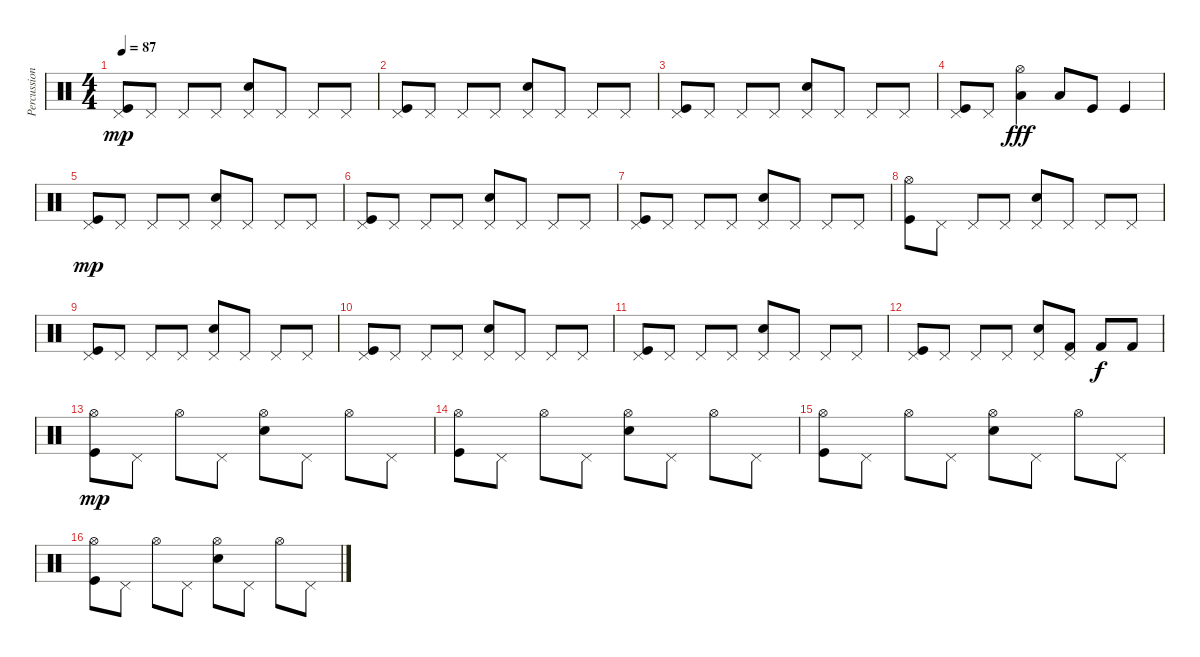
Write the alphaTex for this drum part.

\track ("Percussion" "Percussion") {instrument percussion}
\staff {score}
\articulation defaults
\ts (4 4)
\tempo 87
\clef neutral
\ks c
("Kick (hit)" "Pedal Hi-Hat (hit)").8{dy mp} "Pedal Hi-Hat (hit)".8 "Pedal Hi-Hat (hit)".8 "Pedal Hi-Hat (hit)".8 ("Snare (hit) 2" "Pedal Hi-Hat (hit)").8 "Pedal Hi-Hat (hit)".8 "Pedal Hi-Hat (hit)".8 "Pedal Hi-Hat (hit)".8 |
("Kick (hit)" "Pedal Hi-Hat (hit)").8 "Pedal Hi-Hat (hit)".8 "Pedal Hi-Hat (hit)".8 "Pedal Hi-Hat (hit)".8 ("Snare (hit) 2" "Pedal Hi-Hat (hit)").8 "Pedal Hi-Hat (hit)".8 "Pedal Hi-Hat (hit)".8 "Pedal Hi-Hat (hit)".8 |
("Kick (hit)" "Pedal Hi-Hat (hit)").8 "Pedal Hi-Hat (hit)".8 "Pedal Hi-Hat (hit)".8 "Pedal Hi-Hat (hit)".8 ("Snare (hit) 2" "Pedal Hi-Hat (hit)").8 "Pedal Hi-Hat (hit)".8 "Pedal Hi-Hat (hit)".8 "Pedal Hi-Hat (hit)".8 |
("Kick (hit)" "Pedal Hi-Hat (hit)").8 "Pedal Hi-Hat (hit)".8 ("Low Floor Tom (hit)" "Hi-Hat (open)").4{dy fff} "Low Tom (hit)".8 "Kick (hit)".8 "Kick (hit)".4 |
("Kick (hit)" "Pedal Hi-Hat (hit)").8{dy mp} "Pedal Hi-Hat (hit)".8 "Pedal Hi-Hat (hit)".8 "Pedal Hi-Hat (hit)".8 ("Snare (hit) 2" "Pedal Hi-Hat (hit)").8 "Pedal Hi-Hat (hit)".8 "Pedal Hi-Hat (hit)".8 "Pedal Hi-Hat (hit)".8 |
("Kick (hit)" "Pedal Hi-Hat (hit)").8 "Pedal Hi-Hat (hit)".8 "Pedal Hi-Hat (hit)".8 "Pedal Hi-Hat (hit)".8 ("Snare (hit) 2" "Pedal Hi-Hat (hit)").8 "Pedal Hi-Hat (hit)".8 "Pedal Hi-Hat (hit)".8 "Pedal Hi-Hat (hit)".8 |
("Kick (hit)" "Pedal Hi-Hat (hit)").8 "Pedal Hi-Hat (hit)".8 "Pedal Hi-Hat (hit)".8 "Pedal Hi-Hat (hit)".8 ("Snare (hit) 2" "Pedal Hi-Hat (hit)").8 "Pedal Hi-Hat (hit)".8 "Pedal Hi-Hat (hit)".8 "Pedal Hi-Hat (hit)".8 |
("Kick (hit)" "Hi-Hat (open)").8 "Pedal Hi-Hat (hit)".8 "Pedal Hi-Hat (hit)".8 "Pedal Hi-Hat (hit)".8 ("Snare (hit) 2" "Pedal Hi-Hat (hit)").8 "Pedal Hi-Hat (hit)".8 "Pedal Hi-Hat (hit)".8 "Pedal Hi-Hat (hit)".8 |
("Kick (hit)" "Pedal Hi-Hat (hit)").8 "Pedal Hi-Hat (hit)".8 "Pedal Hi-Hat (hit)".8 "Pedal Hi-Hat (hit)".8 ("Snare (hit) 2" "Pedal Hi-Hat (hit)").8 "Pedal Hi-Hat (hit)".8 "Pedal Hi-Hat (hit)".8 "Pedal Hi-Hat (hit)".8 |
("Kick (hit)" "Pedal Hi-Hat (hit)").8 "Pedal Hi-Hat (hit)".8 "Pedal Hi-Hat (hit)".8 "Pedal Hi-Hat (hit)".8 ("Snare (hit) 2" "Pedal Hi-Hat (hit)").8 "Pedal Hi-Hat (hit)".8 "Pedal Hi-Hat (hit)".8 "Pedal Hi-Hat (hit)".8 |
("Kick (hit)" "Pedal Hi-Hat (hit)").8 "Pedal Hi-Hat (hit)".8 "Pedal Hi-Hat (hit)".8 "Pedal Hi-Hat (hit)".8 ("Snare (hit) 2" "Pedal Hi-Hat (hit)").8 "Pedal Hi-Hat (hit)".8 "Pedal Hi-Hat (hit)".8 "Pedal Hi-Hat (hit)".8 |
("Kick (hit)" "Pedal Hi-Hat (hit)").8 "Pedal Hi-Hat (hit)".8 "Pedal Hi-Hat (hit)".8 "Pedal Hi-Hat (hit)".8 ("Electric Snare (hit)" "Pedal Hi-Hat (hit)").8 ("Kick (hit) 2" "Pedal Hi-Hat (hit)").8 "Kick (hit) 2".8{dy f} "Kick (hit) 2".8 |
("Kick (hit)" "Hi-Hat (open)").8{dy mp} "Pedal Hi-Hat (hit)".8 "Hi-Hat (open)".8 "Pedal Hi-Hat (hit)".8 ("Snare (hit) 2" "Hi-Hat (open)").8 "Pedal Hi-Hat (hit)".8 "Hi-Hat (open)".8 "Pedal Hi-Hat (hit)".8 |
("Kick (hit)" "Hi-Hat (open)").8 "Pedal Hi-Hat (hit)".8 "Hi-Hat (open)".8 "Pedal Hi-Hat (hit)".8 ("Snare (hit) 2" "Hi-Hat (open)").8 "Pedal Hi-Hat (hit)".8 "Hi-Hat (open)".8 "Pedal Hi-Hat (hit)".8 |
("Kick (hit)" "Hi-Hat (open)").8 "Pedal Hi-Hat (hit)".8 "Hi-Hat (open)".8 "Pedal Hi-Hat (hit)".8 ("Snare (hit) 2" "Hi-Hat (open)").8 "Pedal Hi-Hat (hit)".8 "Hi-Hat (open)".8 "Pedal Hi-Hat (hit)".8 |
("Kick (hit)" "Hi-Hat (open)").8 "Pedal Hi-Hat (hit)".8 "Hi-Hat (open)".8 "Pedal Hi-Hat (hit)".8 ("Snare (hit) 2" "Hi-Hat (open)").8 "Pedal Hi-Hat (hit)".8 "Hi-Hat (open)".8 "Pedal Hi-Hat (hit)".8
